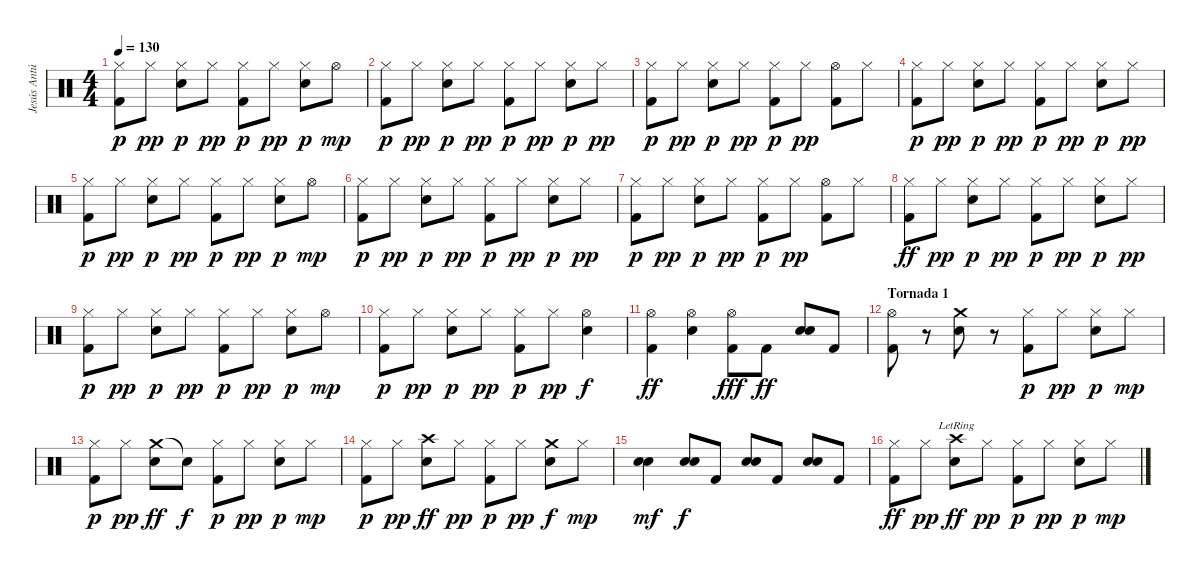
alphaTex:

\track ("Jesús Antúnez (Bateria)" "Jesús Antú") {instrument percussion}
\staff {score}
\articulation defaults
\ts (4 4)
\tempo 130
\clef neutral
\ks c
("Hi-Hat (closed)" "Kick (hit) 2").8{dy p} "Hi-Hat (closed)".8{dy pp} ("Snare (hit) 2" "Hi-Hat (closed)").8{dy p} "Hi-Hat (closed)".8{dy pp} ("Kick (hit) 2" "Hi-Hat (closed)").8{dy p} "Hi-Hat (closed)".8{dy pp} ("Snare (hit) 2" "Hi-Hat (closed)").8{dy p} "Hi-Hat (open)".8{dy mp} |
("Hi-Hat (closed)" "Kick (hit) 2").8{dy p} "Hi-Hat (closed)".8{dy pp} ("Snare (hit) 2" "Hi-Hat (closed)").8{dy p} "Hi-Hat (closed)".8{dy pp} ("Kick (hit) 2" "Hi-Hat (closed)").8{dy p} "Hi-Hat (closed)".8{dy pp} ("Snare (hit) 2" "Hi-Hat (closed)").8{dy p} "Hi-Hat (closed)".8{dy pp} |
("Hi-Hat (closed)" "Kick (hit) 2").8{dy p} "Hi-Hat (closed)".8{dy pp} ("Snare (hit) 2" "Hi-Hat (closed)").8{dy p} "Hi-Hat (closed)".8{dy pp} ("Kick (hit) 2" "Hi-Hat (closed)").8{dy p} "Hi-Hat (closed)".8{dy pp} ("Kick (hit) 2" "Hi-Hat (open)").8 "Hi-Hat (closed)".8 |
("Hi-Hat (closed)" "Kick (hit) 2").8{dy p} "Hi-Hat (closed)".8{dy pp} ("Snare (hit) 2" "Hi-Hat (closed)").8{dy p} "Hi-Hat (closed)".8{dy pp} ("Kick (hit) 2" "Hi-Hat (closed)").8{dy p} "Hi-Hat (closed)".8{dy pp} ("Snare (hit) 2" "Hi-Hat (closed)").8{dy p} "Hi-Hat (closed)".8{dy pp} |
("Hi-Hat (closed)" "Kick (hit) 2").8{dy p} "Hi-Hat (closed)".8{dy pp} ("Snare (hit) 2" "Hi-Hat (closed)").8{dy p} "Hi-Hat (closed)".8{dy pp} ("Kick (hit) 2" "Hi-Hat (closed)").8{dy p} "Hi-Hat (closed)".8{dy pp} ("Snare (hit) 2" "Hi-Hat (closed)").8{dy p} "Hi-Hat (open)".8{dy mp} |
("Hi-Hat (closed)" "Kick (hit) 2").8{dy p} "Hi-Hat (closed)".8{dy pp} ("Snare (hit) 2" "Hi-Hat (closed)").8{dy p} "Hi-Hat (closed)".8{dy pp} ("Kick (hit) 2" "Hi-Hat (closed)").8{dy p} "Hi-Hat (closed)".8{dy pp} ("Snare (hit) 2" "Hi-Hat (closed)").8{dy p} "Hi-Hat (closed)".8{dy pp} |
("Hi-Hat (closed)" "Kick (hit) 2").8{dy p} "Hi-Hat (closed)".8{dy pp} ("Snare (hit) 2" "Hi-Hat (closed)").8{dy p} "Hi-Hat (closed)".8{dy pp} ("Kick (hit) 2" "Hi-Hat (closed)").8{dy p} "Hi-Hat (closed)".8{dy pp} ("Kick (hit) 2" "Hi-Hat (open)").8 "Hi-Hat (closed)".8 |
("Hi-Hat (closed)" "Kick (hit) 2").8{dy ff} "Hi-Hat (closed)".8{dy pp} ("Snare (hit) 2" "Hi-Hat (closed)").8{dy p} "Hi-Hat (closed)".8{dy pp} ("Kick (hit) 2" "Hi-Hat (closed)").8{dy p} "Hi-Hat (closed)".8{dy pp} ("Snare (hit) 2" "Hi-Hat (closed)").8{dy p} "Hi-Hat (closed)".8{dy pp} |
("Hi-Hat (closed)" "Kick (hit) 2").8{dy p} "Hi-Hat (closed)".8{dy pp} ("Snare (hit) 2" "Hi-Hat (closed)").8{dy p} "Hi-Hat (closed)".8{dy pp} ("Kick (hit) 2" "Hi-Hat (closed)").8{dy p} "Hi-Hat (closed)".8{dy pp} ("Snare (hit) 2" "Hi-Hat (closed)").8{dy p} "Hi-Hat (open)".8{dy mp} |
("Hi-Hat (closed)" "Kick (hit) 2").8{dy p} "Hi-Hat (closed)".8{dy pp} ("Snare (hit) 2" "Hi-Hat (closed)").8{dy p} "Hi-Hat (closed)".8{dy pp} ("Kick (hit) 2" "Hi-Hat (closed)").8{dy p} "Hi-Hat (closed)".8{dy pp} ("Snare (hit) 2" "Hi-Hat (open)").4{dy f} |
("Hi-Hat (open)" "Kick (hit) 2").4{dy ff} ("Snare (hit) 2" "Hi-Hat (open)").4 ("Kick (hit) 2" "Hi-Hat (open)").8{dy fff} "Kick (hit) 2".8{dy ff} ("Snare (hit) 2" "Snare (hit) 2").8 "Kick (hit) 2".8 |
\section ("" "Tornada 1")
("Hi-Hat (open)" "Kick (hit) 2").8 r.8 ("Snare (hit) 2" "Crash medium (hit)").8 r.8 ("Kick (hit) 2" "Hi-Hat (closed)").8{dy p} "Hi-Hat (closed)".8{dy pp} ("Snare (hit) 2" "Hi-Hat (closed)").8{dy p} "Hi-Hat (closed)".8{dy mp} |
("Hi-Hat (closed)" "Kick (hit) 2").8{dy p} "Hi-Hat (closed)".8{dy pp} ("Crash medium (hit)" "Snare (hit) 2").8{dy ff} "Snare (hit)"{t}.8{dy f} ("Kick (hit) 2" "Hi-Hat (closed)").8{dy p} "Hi-Hat (closed)".8{dy pp} ("Snare (hit) 2" "Hi-Hat (closed)").8{dy p} "Hi-Hat (closed)".8{dy mp} |
("Hi-Hat (closed)" "Kick (hit) 2").8{dy p} "Hi-Hat (closed)".8{dy pp} ("Snare (hit) 2" "Crash high (hit)").8{dy ff} "Hi-Hat (closed)".8{dy pp} ("Kick (hit) 2" "Hi-Hat (closed)").8{dy p} "Hi-Hat (closed)".8{dy pp} ("Snare (hit) 2" "Crash medium (hit)").8{dy f} "Hi-Hat (closed)".8{dy mp} |
("Snare (hit) 2" "Snare (hit) 2").4{dy mf} ("Snare (hit) 2" "Snare (hit) 2").8{dy f} "Kick (hit) 2".8 ("Snare (hit) 2" "Snare (hit) 2").8 "Kick (hit) 2".8 ("Snare (hit) 2" "Snare (hit) 2").8 "Kick (hit) 2".8 |
("Hi-Hat (closed)" "Kick (hit) 2").8{dy ff} "Hi-Hat (closed)".8{dy pp} ("Snare (hit) 2" "Crash high (hit)"{lr}).8{dy ff} "Hi-Hat (closed)".8{dy pp} ("Kick (hit) 2" "Hi-Hat (closed)").8{dy p} "Hi-Hat (closed)".8{dy pp} ("Snare (hit) 2" "Hi-Hat (closed)").8{dy p} "Hi-Hat (closed)".8{dy mp}
